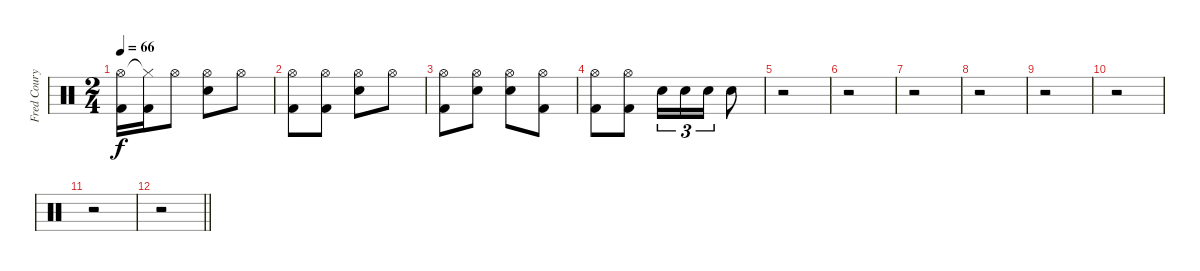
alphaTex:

\track ("Fred Coury" "Fred Coury") {instrument percussion}
\staff {score}
\articulation defaults
\ts (2 4)
\tempo 66
\clef neutral
\ks c
("Hi-Hat (open)" "Kick (hit) 2").16{dy f} ("Hi-Hat (closed)"{t} "Kick (hit) 2").16 "Hi-Hat (open)".8 ("Hi-Hat (open)" "Snare (hit) 2").8 "Hi-Hat (open)".8 |
("Hi-Hat (open)" "Kick (hit) 2").8 ("Hi-Hat (open)" "Kick (hit) 2").8 ("Hi-Hat (open)" "Snare (hit) 2").8 "Hi-Hat (open)".8 |
("Hi-Hat (open)" "Kick (hit) 2").8 ("Hi-Hat (open)" "Snare (hit) 2").8 ("Hi-Hat (open)" "Snare (hit) 2").8 ("Hi-Hat (open)" "Kick (hit) 2").8 |
("Hi-Hat (open)" "Kick (hit) 2").8 ("Hi-Hat (open)" "Kick (hit) 2").8 "Snare (hit) 2".16{tu (3 2)} "Snare (hit) 2".16{tu (3 2)} "Snare (hit) 2".16{tu (3 2)} "Snare (hit) 2".8 |
r.2 |
r.2 |
r.2 |
r.2 |
r.2 |
r.2 |
r.2 |
\barLineRight lightlight
r.2
